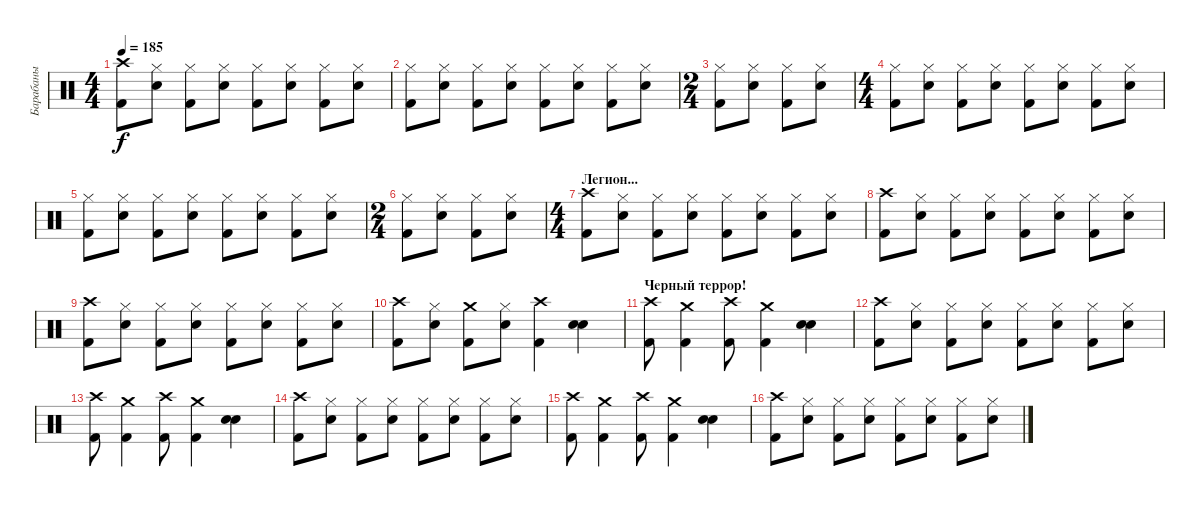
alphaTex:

\track ("Барабаны" "Барабаны") {instrument percussion}
\staff {score}
\articulation defaults
\ts (4 4)
\tempo 185
\clef neutral
\ks c
("Crash high (hit)" "Kick (hit) 2").8{dy f} ("Hi-Hat (closed)" "Snare (hit) 2").8 ("Hi-Hat (closed)" "Kick (hit) 2").8 ("Hi-Hat (closed)" "Snare (hit) 2").8 ("Hi-Hat (closed)" "Kick (hit) 2").8 ("Hi-Hat (closed)" "Snare (hit) 2").8 ("Hi-Hat (closed)" "Kick (hit) 2").8 ("Hi-Hat (closed)" "Snare (hit) 2").8 |
("Hi-Hat (closed)" "Kick (hit) 2").8 ("Hi-Hat (closed)" "Snare (hit) 2").8 ("Hi-Hat (closed)" "Kick (hit) 2").8 ("Hi-Hat (closed)" "Snare (hit) 2").8 ("Hi-Hat (closed)" "Kick (hit) 2").8 ("Hi-Hat (closed)" "Snare (hit) 2").8 ("Hi-Hat (closed)" "Kick (hit) 2").8 ("Hi-Hat (closed)" "Snare (hit) 2").8 |
\ts (2 4)
("Hi-Hat (closed)" "Kick (hit) 2").8 ("Hi-Hat (closed)" "Snare (hit) 2").8 ("Hi-Hat (closed)" "Kick (hit) 2").8 ("Hi-Hat (closed)" "Snare (hit) 2").8 |
\ts (4 4)
("Hi-Hat (closed)" "Kick (hit) 2").8 ("Hi-Hat (closed)" "Snare (hit) 2").8 ("Hi-Hat (closed)" "Kick (hit) 2").8 ("Hi-Hat (closed)" "Snare (hit) 2").8 ("Hi-Hat (closed)" "Kick (hit) 2").8 ("Hi-Hat (closed)" "Snare (hit) 2").8 ("Hi-Hat (closed)" "Kick (hit) 2").8 ("Hi-Hat (closed)" "Snare (hit) 2").8 |
("Hi-Hat (closed)" "Kick (hit) 2").8 ("Hi-Hat (closed)" "Snare (hit) 2").8 ("Hi-Hat (closed)" "Kick (hit) 2").8 ("Hi-Hat (closed)" "Snare (hit) 2").8 ("Hi-Hat (closed)" "Kick (hit) 2").8 ("Hi-Hat (closed)" "Snare (hit) 2").8 ("Hi-Hat (closed)" "Kick (hit) 2").8 ("Hi-Hat (closed)" "Snare (hit) 2").8 |
\ts (2 4)
("Hi-Hat (closed)" "Kick (hit) 2").8 ("Hi-Hat (closed)" "Snare (hit) 2").8 ("Hi-Hat (closed)" "Kick (hit) 2").8 ("Hi-Hat (closed)" "Snare (hit) 2").8 |
\ts (4 4)
\section ("" "Легион...")
("Crash high (hit)" "Kick (hit) 2").8 ("Hi-Hat (closed)" "Snare (hit) 2").8 ("Hi-Hat (closed)" "Kick (hit) 2").8 ("Hi-Hat (closed)" "Snare (hit) 2").8 ("Hi-Hat (closed)" "Kick (hit) 2").8 ("Hi-Hat (closed)" "Snare (hit) 2").8 ("Hi-Hat (closed)" "Kick (hit) 2").8 ("Hi-Hat (closed)" "Snare (hit) 2").8 |
("Crash high (hit)" "Kick (hit) 2").8 ("Hi-Hat (closed)" "Snare (hit) 2").8 ("Hi-Hat (closed)" "Kick (hit) 2").8 ("Hi-Hat (closed)" "Snare (hit) 2").8 ("Hi-Hat (closed)" "Kick (hit) 2").8 ("Hi-Hat (closed)" "Snare (hit) 2").8 ("Hi-Hat (closed)" "Kick (hit) 2").8 ("Hi-Hat (closed)" "Snare (hit) 2").8 |
("Crash high (hit)" "Kick (hit) 2").8 ("Hi-Hat (closed)" "Snare (hit) 2").8 ("Hi-Hat (closed)" "Kick (hit) 2").8 ("Hi-Hat (closed)" "Snare (hit) 2").8 ("Hi-Hat (closed)" "Kick (hit) 2").8 ("Hi-Hat (closed)" "Snare (hit) 2").8 ("Hi-Hat (closed)" "Kick (hit) 2").8 ("Hi-Hat (closed)" "Snare (hit) 2").8 |
("Crash high (hit)" "Kick (hit) 2").8 ("Hi-Hat (closed)" "Snare (hit) 2").8 ("Crash medium (hit)" "Kick (hit) 2").8 ("Hi-Hat (closed)" "Snare (hit) 2").8 ("Crash high (hit)" "Kick (hit) 2").4 ("Snare (hit) 2" "Snare (hit) 2").4 |
\section ("" "Черный террор!")
("Crash high (hit)" "Kick (hit) 2").8 ("Crash medium (hit)" "Kick (hit) 2").4 ("Crash high (hit)" "Kick (hit) 2").8 ("Crash medium (hit)" "Kick (hit) 2").4 ("Snare (hit) 2" "Snare (hit) 2").4 |
("Crash high (hit)" "Kick (hit) 2").8 ("Hi-Hat (closed)" "Snare (hit) 2").8 ("Hi-Hat (closed)" "Kick (hit) 2").8 ("Hi-Hat (closed)" "Snare (hit) 2").8 ("Hi-Hat (closed)" "Kick (hit) 2").8 ("Hi-Hat (closed)" "Snare (hit) 2").8 ("Hi-Hat (closed)" "Kick (hit) 2").8 ("Hi-Hat (closed)" "Snare (hit) 2").8 |
("Crash high (hit)" "Kick (hit) 2").8 ("Crash medium (hit)" "Kick (hit) 2").4 ("Crash high (hit)" "Kick (hit) 2").8 ("Crash medium (hit)" "Kick (hit) 2").4 ("Snare (hit) 2" "Snare (hit) 2").4 |
("Crash high (hit)" "Kick (hit) 2").8 ("Hi-Hat (closed)" "Snare (hit) 2").8 ("Hi-Hat (closed)" "Kick (hit) 2").8 ("Hi-Hat (closed)" "Snare (hit) 2").8 ("Hi-Hat (closed)" "Kick (hit) 2").8 ("Hi-Hat (closed)" "Snare (hit) 2").8 ("Hi-Hat (closed)" "Kick (hit) 2").8 ("Hi-Hat (closed)" "Snare (hit) 2").8 |
("Crash high (hit)" "Kick (hit) 2").8 ("Crash medium (hit)" "Kick (hit) 2").4 ("Crash high (hit)" "Kick (hit) 2").8 ("Crash medium (hit)" "Kick (hit) 2").4 ("Snare (hit) 2" "Snare (hit) 2").4 |
("Crash high (hit)" "Kick (hit) 2").8 ("Hi-Hat (closed)" "Snare (hit) 2").8 ("Hi-Hat (closed)" "Kick (hit) 2").8 ("Hi-Hat (closed)" "Snare (hit) 2").8 ("Hi-Hat (closed)" "Kick (hit) 2").8 ("Hi-Hat (closed)" "Snare (hit) 2").8 ("Hi-Hat (closed)" "Kick (hit) 2").8 ("Hi-Hat (closed)" "Snare (hit) 2").8
